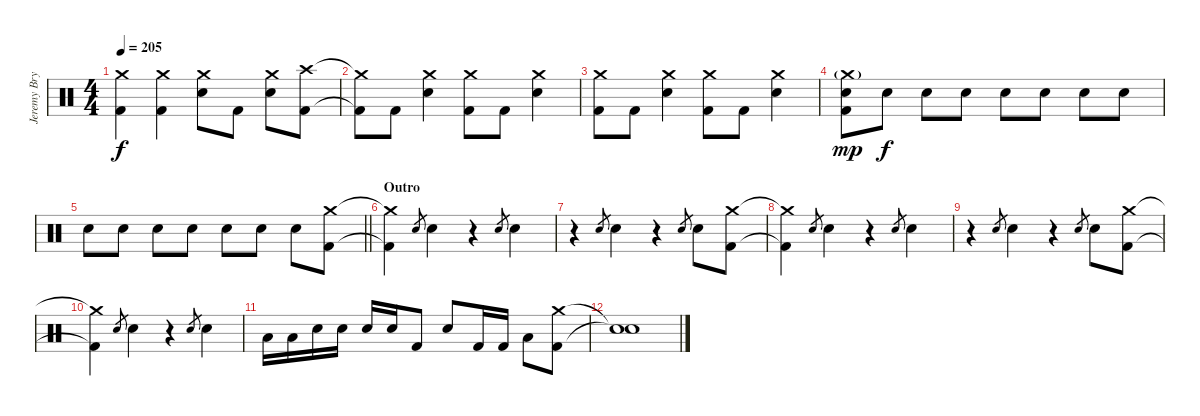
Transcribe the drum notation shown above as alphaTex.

\track ("Jeremy Bryan - Drums" "Jeremy Bry") {instrument percussion}
\staff {score}
\articulation defaults
\ts (4 4)
\tempo 205
\clef neutral
\ks c
("Crash medium (hit)"{t} "Kick (hit) 2"{t}).4{dy f} ("Crash medium (hit)" "Kick (hit) 2").4 ("Crash medium (hit)" "Electric Snare (hit)").8 "Kick (hit) 2".8 ("Crash medium (hit)" "Electric Snare (hit)").8 ("Crash high (hit)" "Kick (hit) 2").8 |
("Crash medium (hit)"{t} "Kick (hit) 2"{t}).8 "Kick (hit) 2".8 ("Crash medium (hit)" "Electric Snare (hit)").4 ("Crash medium (hit)" "Kick (hit) 2").8 "Kick (hit) 2".8 ("Crash medium (hit)" "Electric Snare (hit)").4 |
("Crash medium (hit)" "Kick (hit) 2").8 "Kick (hit) 2".8 ("Crash medium (hit)" "Electric Snare (hit)").4 ("Crash medium (hit)" "Kick (hit) 2").8 "Kick (hit) 2".8 ("Crash medium (hit)" "Electric Snare (hit)").4 |
("Crash medium (hit)"{g} "Electric Snare (hit)" "Kick (hit) 2").8{dy mp} "Electric Snare (hit)".8{dy f volume 6} "Electric Snare (hit)".8{volume 12} "Electric Snare (hit)".8 "Electric Snare (hit)".8 "Electric Snare (hit)".8 "Electric Snare (hit)".8 "Electric Snare (hit)".8 |
\barLineRight lightlight "Electric Snare (hit)".8 "Electric Snare (hit)".8 "Electric Snare (hit)".8 "Electric Snare (hit)".8 "Electric Snare (hit)".8 "Electric Snare (hit)".8 "Electric Snare (hit)".8
("Crash medium (hit)" "Kick (hit) 2").8 |
\section ("" "Outro")
("Crash medium (hit)"{t} "Kick (hit) 2"{t}).4 "Electric Snare (hit)".8{gr} "Electric Snare (hit)".4 r.4 "Electric Snare (hit)".8{gr} "Electric Snare (hit)".4 |
r.4 "Electric Snare (hit)".8{gr} "Electric Snare (hit)".4 r.4 "Electric Snare (hit)".8{gr} "Electric Snare (hit)".8 ("Crash medium (hit)" "Kick (hit) 2").8 |
("Crash medium (hit)"{t} "Kick (hit) 2"{t}).4 "Electric Snare (hit)".8{gr} "Electric Snare (hit)".4 r.4 "Electric Snare (hit)".8{gr} "Electric Snare (hit)".4 |
r.4 "Electric Snare (hit)".8{gr} "Electric Snare (hit)".4 r.4 "Electric Snare (hit)".8{gr} "Electric Snare (hit)".8 ("Crash medium (hit)" "Kick (hit) 2").8 |
("Crash medium (hit)"{t} "Kick (hit) 2"{t}).4 "Electric Snare (hit)".8{gr} "Electric Snare (hit)".4 r.4 "Electric Snare (hit)".8{gr} "Electric Snare (hit)".4 |
"Low Tom (hit)".16 "Low Tom (hit)".16 "Electric Snare (hit)".16 "Electric Snare (hit)".16 "Electric Snare (hit)".16 "Electric Snare (hit)".16 "Kick (hit) 2".8 "Electric Snare (hit)".8 "Kick (hit) 2".16 "Kick (hit) 2".16 "Low Tom (hit)".8 ("Crash medium (hit)" "Kick (hit) 2").8 |
("Snare (hit)"{t} "Snare (hit)"{t}).1
